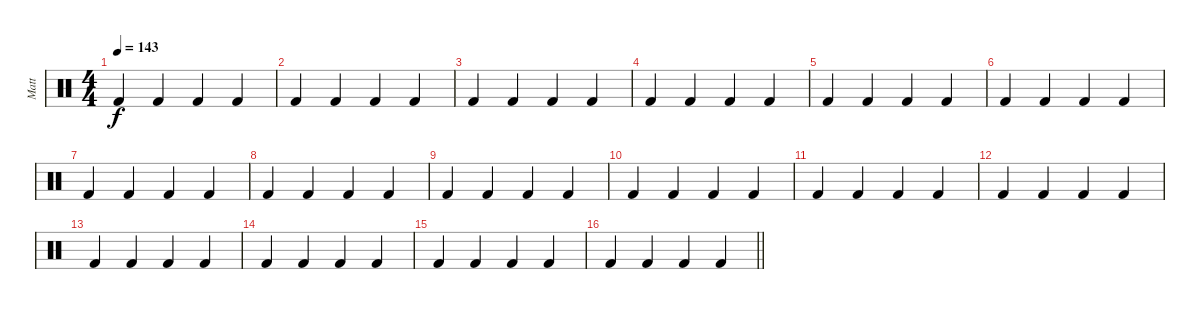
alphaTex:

\track ("Matt" "Matt") {instrument percussion}
\staff {score}
\articulation defaults
\ts (4 4)
\tempo 143
\clef neutral
\ks c "Kick (hit) 2".4{dy f} "Kick (hit) 2".4 "Kick (hit) 2".4 "Kick (hit) 2".4
|
"Kick (hit) 2".4 "Kick (hit) 2".4 "Kick (hit) 2".4 "Kick (hit) 2".4 |
"Kick (hit) 2".4 "Kick (hit) 2".4 "Kick (hit) 2".4 "Kick (hit) 2".4 |
"Kick (hit) 2".4 "Kick (hit) 2".4 "Kick (hit) 2".4 "Kick (hit) 2".4 |
"Kick (hit) 2".4 "Kick (hit) 2".4 "Kick (hit) 2".4 "Kick (hit) 2".4 |
"Kick (hit) 2".4 "Kick (hit) 2".4 "Kick (hit) 2".4 "Kick (hit) 2".4 |
"Kick (hit) 2".4 "Kick (hit) 2".4 "Kick (hit) 2".4 "Kick (hit) 2".4 |
"Kick (hit) 2".4 "Kick (hit) 2".4 "Kick (hit) 2".4 "Kick (hit) 2".4 |
"Kick (hit) 2".4 "Kick (hit) 2".4 "Kick (hit) 2".4 "Kick (hit) 2".4 |
"Kick (hit) 2".4 "Kick (hit) 2".4 "Kick (hit) 2".4 "Kick (hit) 2".4 |
"Kick (hit) 2".4 "Kick (hit) 2".4 "Kick (hit) 2".4 "Kick (hit) 2".4 |
"Kick (hit) 2".4 "Kick (hit) 2".4 "Kick (hit) 2".4 "Kick (hit) 2".4 |
"Kick (hit) 2".4 "Kick (hit) 2".4 "Kick (hit) 2".4 "Kick (hit) 2".4 |
"Kick (hit) 2".4 "Kick (hit) 2".4 "Kick (hit) 2".4 "Kick (hit) 2".4 |
"Kick (hit) 2".4 "Kick (hit) 2".4 "Kick (hit) 2".4 "Kick (hit) 2".4 |
\barLineRight lightlight "Kick (hit) 2".4 "Kick (hit) 2".4 "Kick (hit) 2".4 "Kick (hit) 2".4
